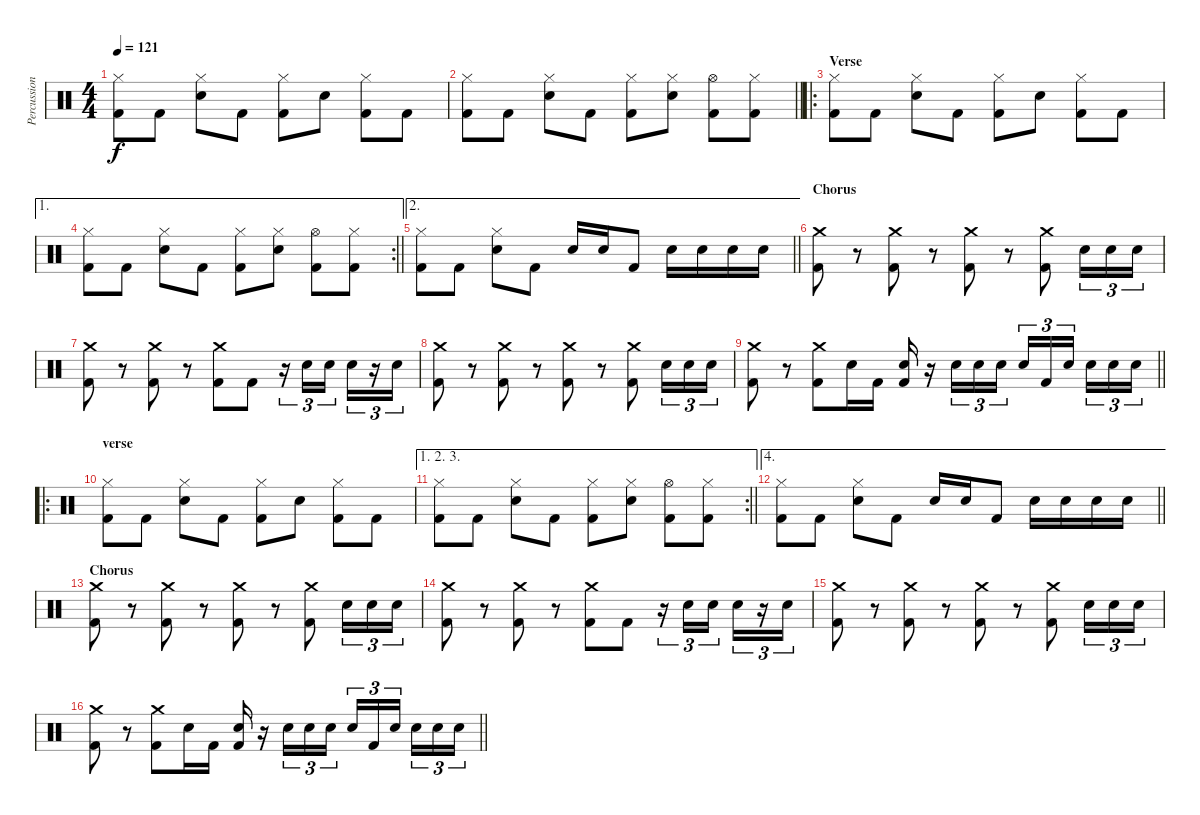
\track ("Percussion" "Percussion") {instrument percussion}
\staff {score}
\articulation defaults
\ts (4 4)
\tempo 121
\clef neutral
\ks c
("Hi-Hat (closed)" "Kick (hit) 2").8{dy f} "Kick (hit) 2".8 ("Hi-Hat (closed)" "Electric Snare (hit)").8 "Kick (hit) 2".8 ("Hi-Hat (closed)" "Kick (hit) 2").8 "Electric Snare (hit)".8 ("Hi-Hat (closed)" "Kick (hit) 2").8 "Kick (hit) 2".8 |
\barLineRight lightlight
("Hi-Hat (closed)" "Kick (hit) 2").8 "Kick (hit) 2".8 ("Hi-Hat (closed)" "Electric Snare (hit)").8 "Kick (hit) 2".8 ("Hi-Hat (closed)" "Kick (hit) 2").8 ("Hi-Hat (closed)" "Electric Snare (hit)").8 ("Hi-Hat (open)" "Kick (hit) 2").8 ("Hi-Hat (closed)" "Kick (hit) 2").8 |
\ro
\section ("" "Verse")
("Hi-Hat (closed)" "Kick (hit) 2").8 "Kick (hit) 2".8 ("Hi-Hat (closed)" "Electric Snare (hit)").8 "Kick (hit) 2".8 ("Hi-Hat (closed)" "Kick (hit) 2").8 "Electric Snare (hit)".8 ("Hi-Hat (closed)" "Kick (hit) 2").8 "Kick (hit) 2".8 |
\ae 1
\rc 2
\barLineRight lightlight
("Hi-Hat (closed)" "Kick (hit) 2").8 "Kick (hit) 2".8 ("Hi-Hat (closed)" "Electric Snare (hit)").8 "Kick (hit) 2".8 ("Hi-Hat (closed)" "Kick (hit) 2").8 ("Hi-Hat (closed)" "Electric Snare (hit)").8 ("Hi-Hat (open)" "Kick (hit) 2").8 ("Hi-Hat (closed)" "Kick (hit) 2").8 |
\ae 2
\barLineRight lightlight
("Hi-Hat (closed)" "Kick (hit) 2").8 "Kick (hit) 2".8 ("Hi-Hat (closed)" "Electric Snare (hit)").8 "Kick (hit) 2".8 "Electric Snare (hit)".16 "Electric Snare (hit)".16 "Kick (hit) 2".8 "Electric Snare (hit)".16 "Electric Snare (hit)".16 "Electric Snare (hit)".16 "Electric Snare (hit)".16 |
\section ("" "Chorus")
("Crash medium (hit)" "Kick (hit) 2").8 r.8 ("Crash medium (hit)" "Kick (hit) 2").8 r.8 ("Crash medium (hit)" "Kick (hit) 2").8 r.8 ("Crash medium (hit)" "Kick (hit) 2").8 "Electric Snare (hit)".16{tu (3 2)} "Electric Snare (hit)".16{tu (3 2)} "Electric Snare (hit)".16{tu (3 2)} |
("Crash medium (hit)" "Kick (hit) 2").8 r.8 ("Crash medium (hit)" "Kick (hit) 2").8 r.8 ("Crash medium (hit)" "Kick (hit) 2").8 "Kick (hit) 2".8 r.16{tu (3 2)} "Electric Snare (hit)".16{tu (3 2)} "Electric Snare (hit)".16{tu (3 2) beam splitsecondary} "Electric Snare (hit)".16{tu (3 2)} r.16{tu (3 2)} "Electric Snare (hit)".16{tu (3 2)} |
("Crash medium (hit)" "Kick (hit) 2").8 r.8 ("Crash medium (hit)" "Kick (hit) 2").8 r.8 ("Crash medium (hit)" "Kick (hit) 2").8 r.8 ("Crash medium (hit)" "Kick (hit) 2").8 "Electric Snare (hit)".16{tu (3 2)} "Electric Snare (hit)".16{tu (3 2)} "Electric Snare (hit)".16{tu (3 2)} |
\barLineRight lightlight
("Crash medium (hit)" "Kick (hit) 2").8 r.8 ("Crash medium (hit)" "Kick (hit) 2").8 "Electric Snare (hit)".16 "Kick (hit) 2".16 ("Electric Snare (hit)" "Kick (hit) 2").16 r.16 "Electric Snare (hit)".16{tu (3 2)} "Electric Snare (hit)".16{tu (3 2)} "Electric Snare (hit)".16{tu (3 2)} "Electric Snare (hit)".16{tu (3 2)} "Kick (hit) 2".16{tu (3 2)} "Electric Snare (hit)".16{tu (3 2) beam splitsecondary} "Electric Snare (hit)".16{tu (3 2)} "Electric Snare (hit)".16{tu (3 2)} "Electric Snare (hit)".16{tu (3 2)} |
\ro
\section ("" "verse")
("Hi-Hat (closed)" "Kick (hit) 2").8 "Kick (hit) 2".8 ("Hi-Hat (closed)" "Electric Snare (hit)").8 "Kick (hit) 2".8 ("Hi-Hat (closed)" "Kick (hit) 2").8 "Electric Snare (hit)".8 ("Hi-Hat (closed)" "Kick (hit) 2").8 "Kick (hit) 2".8 |
\ae (1 2 3)
\rc 2
\barLineRight lightlight
("Hi-Hat (closed)" "Kick (hit) 2").8 "Kick (hit) 2".8 ("Hi-Hat (closed)" "Electric Snare (hit)").8 "Kick (hit) 2".8 ("Hi-Hat (closed)" "Kick (hit) 2").8 ("Hi-Hat (closed)" "Electric Snare (hit)").8 ("Hi-Hat (open)" "Kick (hit) 2").8 ("Hi-Hat (closed)" "Kick (hit) 2").8 |
\ae 4
\barLineRight lightlight
("Hi-Hat (closed)" "Kick (hit) 2").8 "Kick (hit) 2".8 ("Hi-Hat (closed)" "Electric Snare (hit)").8 "Kick (hit) 2".8 "Electric Snare (hit)".16 "Electric Snare (hit)".16 "Kick (hit) 2".8 "Electric Snare (hit)".16 "Electric Snare (hit)".16 "Electric Snare (hit)".16 "Electric Snare (hit)".16 |
\section ("" "Chorus")
("Crash medium (hit)" "Kick (hit) 2").8 r.8 ("Crash medium (hit)" "Kick (hit) 2").8 r.8 ("Crash medium (hit)" "Kick (hit) 2").8 r.8 ("Crash medium (hit)" "Kick (hit) 2").8 "Electric Snare (hit)".16{tu (3 2)} "Electric Snare (hit)".16{tu (3 2)} "Electric Snare (hit)".16{tu (3 2)} |
("Crash medium (hit)" "Kick (hit) 2").8 r.8 ("Crash medium (hit)" "Kick (hit) 2").8 r.8 ("Crash medium (hit)" "Kick (hit) 2").8 "Kick (hit) 2".8 r.16{tu (3 2)} "Electric Snare (hit)".16{tu (3 2)} "Electric Snare (hit)".16{tu (3 2) beam splitsecondary} "Electric Snare (hit)".16{tu (3 2)} r.16{tu (3 2)} "Electric Snare (hit)".16{tu (3 2)} |
("Crash medium (hit)" "Kick (hit) 2").8 r.8 ("Crash medium (hit)" "Kick (hit) 2").8 r.8 ("Crash medium (hit)" "Kick (hit) 2").8 r.8 ("Crash medium (hit)" "Kick (hit) 2").8 "Electric Snare (hit)".16{tu (3 2)} "Electric Snare (hit)".16{tu (3 2)} "Electric Snare (hit)".16{tu (3 2)} |
\barLineRight lightlight
("Crash medium (hit)" "Kick (hit) 2").8 r.8 ("Crash medium (hit)" "Kick (hit) 2").8 "Electric Snare (hit)".16 "Kick (hit) 2".16 ("Electric Snare (hit)" "Kick (hit) 2").16 r.16 "Electric Snare (hit)".16{tu (3 2)} "Electric Snare (hit)".16{tu (3 2)} "Electric Snare (hit)".16{tu (3 2)} "Electric Snare (hit)".16{tu (3 2)} "Kick (hit) 2".16{tu (3 2)} "Electric Snare (hit)".16{tu (3 2) beam splitsecondary} "Electric Snare (hit)".16{tu (3 2)} "Electric Snare (hit)".16{tu (3 2)} "Electric Snare (hit)".16{tu (3 2)}
